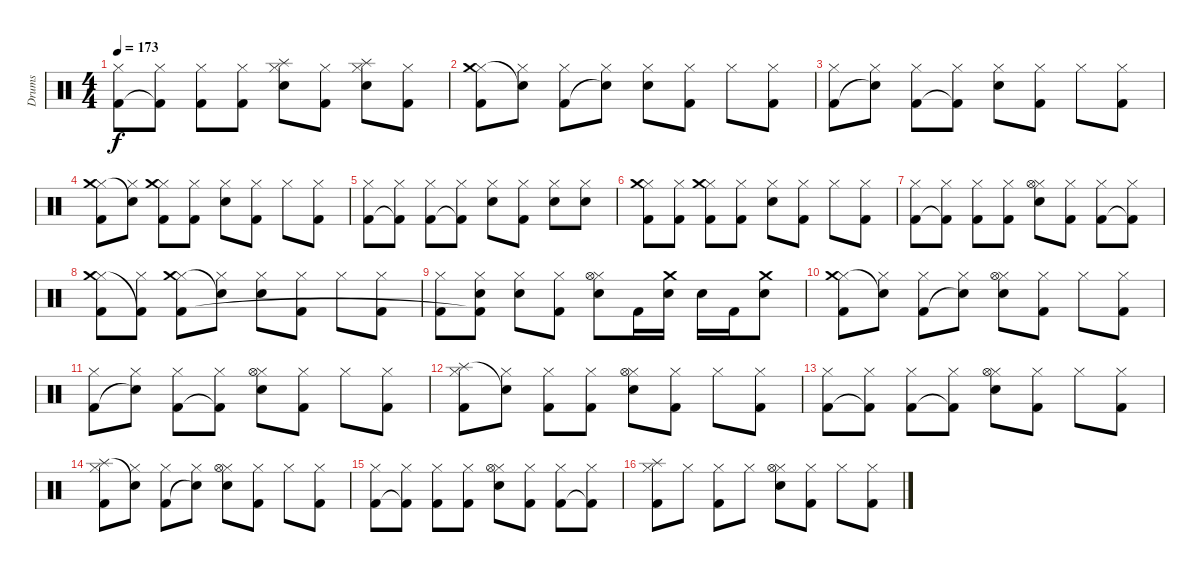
\track ("Drums" "Drums") {instrument percussion}
\staff {score}
\articulation defaults
\ts (4 4)
\tempo 173
\clef neutral
\ks c
("Hi-Hat (closed)" "Kick (hit) 2").8{dy f} ("Hi-Hat (closed)" "Kick (hit) 2"{t}).8 ("Hi-Hat (closed)" "Kick (hit) 2").8 ("Hi-Hat (closed)" "Kick (hit) 2").8 ("Hi-Hat (closed)" "Splash (hit)" "Electric Snare (hit)").8 ("Hi-Hat (closed)" "Kick (hit) 2").8 ("Hi-Hat (closed)" "Splash (hit)" "Electric Snare (hit)").8 ("Hi-Hat (closed)" "Kick (hit) 2").8 |
("Hi-Hat (closed)" "Crash medium (hit)" "Kick (hit) 2").8 ("Hi-Hat (closed)" "Snare (hit)"{t}).8 ("Hi-Hat (closed)" "Kick (hit) 2").8 ("Hi-Hat (closed)" "Snare (hit)"{t}).8 ("Hi-Hat (closed)" "Electric Snare (hit)").8 ("Hi-Hat (closed)" "Kick (hit) 2").8 "Hi-Hat (closed)".8 ("Hi-Hat (closed)" "Kick (hit) 2").8 |
("Hi-Hat (closed)" "Kick (hit) 2").8 ("Hi-Hat (closed)" "Snare (hit)"{t}).8 ("Hi-Hat (closed)" "Kick (hit) 2").8 ("Hi-Hat (closed)" "Kick (hit) 2"{t}).8 ("Hi-Hat (closed)" "Electric Snare (hit)").8 ("Hi-Hat (closed)" "Kick (hit) 2").8 "Hi-Hat (closed)".8 ("Hi-Hat (closed)" "Kick (hit) 2").8 |
("Hi-Hat (closed)" "Crash medium (hit)" "Kick (hit) 2").8 ("Hi-Hat (closed)" "Snare (hit)"{t}).8 ("Hi-Hat (closed)" "Crash medium (hit)" "Kick (hit) 2").8 ("Hi-Hat (closed)" "Kick (hit) 2").8 ("Hi-Hat (closed)" "Electric Snare (hit)").8 ("Hi-Hat (closed)" "Kick (hit) 2").8 "Hi-Hat (closed)".8 ("Hi-Hat (closed)" "Kick (hit) 2").8 |
("Hi-Hat (closed)" "Kick (hit) 2").8 ("Hi-Hat (closed)" "Kick (hit) 2"{t}).8 ("Hi-Hat (closed)" "Kick (hit) 2").8 ("Hi-Hat (closed)" "Kick (hit) 2"{t}).8 ("Hi-Hat (closed)" "Electric Snare (hit)").8 ("Hi-Hat (closed)" "Kick (hit) 2").8 ("Hi-Hat (closed)" "Electric Snare (hit)").8 ("Hi-Hat (closed)" "Electric Snare (hit)").8 |
("Hi-Hat (closed)" "Crash medium (hit)" "Kick (hit) 2").8 ("Hi-Hat (closed)" "Kick (hit) 2").8 ("Hi-Hat (closed)" "Crash medium (hit)" "Kick (hit) 2").8 ("Hi-Hat (closed)" "Kick (hit) 2").8 ("Hi-Hat (closed)" "Electric Snare (hit)").8 ("Hi-Hat (closed)" "Kick (hit) 2").8 "Hi-Hat (closed)".8 ("Hi-Hat (closed)" "Kick (hit) 2").8 |
("Hi-Hat (closed)" "Kick (hit) 2").8 ("Hi-Hat (closed)" "Kick (hit) 2"{t}).8 ("Hi-Hat (closed)" "Kick (hit) 2").8 ("Hi-Hat (closed)" "Kick (hit) 2").8 ("Hi-Hat (closed)" "Hi-Hat (open)" "Electric Snare (hit)").8 ("Hi-Hat (closed)" "Kick (hit) 2").8 ("Hi-Hat (closed)" "Kick (hit) 2").8 ("Hi-Hat (closed)" "Kick (hit) 2"{t}).8 |
("Hi-Hat (closed)" "Crash medium (hit)" "Kick (hit) 2").8 ("Hi-Hat (closed)" "Kick (hit) 2"{t}).8 ("Hi-Hat (closed)" "Crash medium (hit)" "Kick (hit) 2").8 ("Hi-Hat (closed)" "Snare (hit)"{t}).8 ("Hi-Hat (closed)" "Electric Snare (hit)").8 ("Hi-Hat (closed)" "Kick (hit) 2").8 "Hi-Hat (closed)".8 ("Hi-Hat (closed)" "Kick (hit) 2").8 |
("Hi-Hat (closed)" "Kick (hit) 2").8 ("Hi-Hat (closed)" "Electric Snare (hit)" "Kick (hit) 2"{t}).8 ("Hi-Hat (closed)" "Electric Snare (hit)").8 ("Hi-Hat (closed)" "Kick (hit) 2").8 ("Hi-Hat (closed)" "Hi-Hat (open)" "Electric Snare (hit)").8 "Kick (hit) 2".16 ("Crash medium (hit)" "Electric Snare (hit)").16 "Electric Snare (hit)".16 "Kick (hit) 2".16 ("Crash medium (hit)" "Electric Snare (hit)").8 |
("Hi-Hat (closed)" "Crash medium (hit)" "Kick (hit) 2").8 ("Hi-Hat (closed)" "Snare (hit)"{t}).8 ("Hi-Hat (closed)" "Kick (hit) 2").8 ("Hi-Hat (closed)" "Snare (hit)"{t}).8 ("Hi-Hat (closed)" "Hi-Hat (open)" "Electric Snare (hit)").8 ("Hi-Hat (closed)" "Kick (hit) 2").8 "Hi-Hat (closed)".8 ("Hi-Hat (closed)" "Kick (hit) 2").8 |
("Hi-Hat (closed)" "Kick (hit) 2").8 ("Hi-Hat (closed)" "Snare (hit)"{t}).8 ("Hi-Hat (closed)" "Kick (hit) 2").8 ("Hi-Hat (closed)" "Kick (hit) 2"{t}).8 ("Hi-Hat (closed)" "Hi-Hat (open)" "Electric Snare (hit)").8 ("Hi-Hat (closed)" "Kick (hit) 2").8 "Hi-Hat (closed)".8 ("Hi-Hat (closed)" "Kick (hit) 2").8 |
("Hi-Hat (closed)" "Splash (hit)" "Kick (hit) 2").8 ("Hi-Hat (closed)" "Snare (hit)"{t}).8 ("Hi-Hat (closed)" "Kick (hit) 2").8 ("Hi-Hat (closed)" "Kick (hit) 2").8 ("Hi-Hat (closed)" "Hi-Hat (open)" "Electric Snare (hit)").8 ("Hi-Hat (closed)" "Kick (hit) 2").8 "Hi-Hat (closed)".8 ("Hi-Hat (closed)" "Kick (hit) 2").8 |
("Hi-Hat (closed)" "Kick (hit) 2").8 ("Hi-Hat (closed)" "Kick (hit) 2"{t}).8 ("Hi-Hat (closed)" "Kick (hit) 2").8 ("Hi-Hat (closed)" "Kick (hit) 2"{t}).8 ("Hi-Hat (closed)" "Hi-Hat (open)" "Electric Snare (hit)").8 ("Hi-Hat (closed)" "Kick (hit) 2").8 "Hi-Hat (closed)".8 ("Hi-Hat (closed)" "Kick (hit) 2").8 |
("Hi-Hat (closed)" "Splash (hit)" "Kick (hit) 2").8 ("Hi-Hat (closed)" "Snare (hit)"{t}).8 ("Hi-Hat (closed)" "Kick (hit) 2").8 ("Hi-Hat (closed)" "Snare (hit)"{t}).8 ("Hi-Hat (closed)" "Hi-Hat (open)" "Electric Snare (hit)").8 ("Hi-Hat (closed)" "Kick (hit) 2").8 "Hi-Hat (closed)".8 ("Hi-Hat (closed)" "Kick (hit) 2").8 |
("Hi-Hat (closed)" "Kick (hit) 2").8 ("Hi-Hat (closed)" "Kick (hit) 2"{t}).8 ("Hi-Hat (closed)" "Kick (hit) 2").8 ("Hi-Hat (closed)" "Kick (hit) 2").8 ("Hi-Hat (closed)" "Hi-Hat (open)" "Electric Snare (hit)").8 ("Hi-Hat (closed)" "Kick (hit) 2").8 ("Hi-Hat (closed)" "Kick (hit) 2").8 ("Hi-Hat (closed)" "Kick (hit) 2"{t}).8 |
("Hi-Hat (closed)" "Splash (hit)" "Kick (hit) 2").8 "Hi-Hat (closed)".8 ("Hi-Hat (closed)" "Kick (hit) 2").8 "Hi-Hat (closed)".8 ("Hi-Hat (closed)" "Hi-Hat (open)" "Electric Snare (hit)").8 ("Hi-Hat (closed)" "Kick (hit) 2").8 "Hi-Hat (closed)".8 ("Hi-Hat (closed)" "Kick (hit) 2").8
